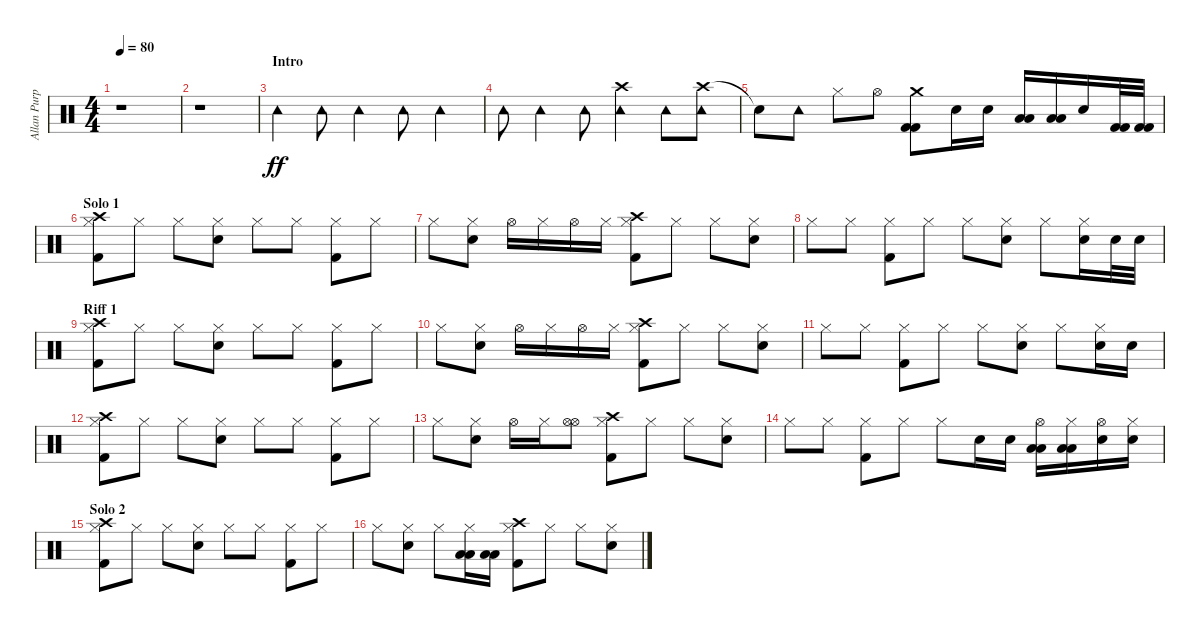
\track ("Allan Purple" "Allan Purp") {instrument percussion}
\staff {score}
\articulation defaults
\ts (4 4)
\tempo 80
\clef neutral
\ks c
r.1{dy ff} |
r.1 |
\section ("" "Intro")
"Tambourine (hit)".4 "Tambourine (hit)".8 "Tambourine (hit)".4 "Tambourine (hit)".8 "Tambourine (hit)".4 |
"Tambourine (hit)".8 "Tambourine (hit)".4 "Tambourine (hit)".8 ("Crash high (hit)" "Tambourine (hit)").4 "Tambourine (hit)".8 ("Crash high (hit)" "Tambourine (hit)").8 |
"Snare (hit)"{t}.8 "Tambourine (hit)".8 "Hi-Hat (closed)".8 "Hi-Hat (open)".8 ("Crash medium (hit)" "Kick (hit) 2" "Kick (hit) 2").8 "Electric Snare (hit)".16 "Electric Snare (hit)".16 ("Low Tom (hit)" "Low Tom (hit)").16 ("Low Tom (hit)" "Low Tom (hit)").16 "Snare (hit) 2".16 ("Kick (hit) 2" "Kick (hit) 2").32 ("Kick (hit) 2" "Kick (hit) 2").32 |
\section ("" "Solo 1")
("Crash high (hit)" "Hi-Hat (closed)" "Kick (hit) 2").8 "Hi-Hat (closed)".8 "Hi-Hat (closed)".8 ("Hi-Hat (closed)" "Snare (hit) 2").8 "Hi-Hat (closed)".8 "Hi-Hat (closed)".8 ("Hi-Hat (closed)" "Kick (hit) 2").8 "Hi-Hat (closed)".8 |
"Hi-Hat (closed)".8 ("Hi-Hat (closed)" "Snare (hit) 2").8 "Hi-Hat (open)".16 "Hi-Hat (closed)".16 "Hi-Hat (open)".16 "Hi-Hat (closed)".16 ("Crash high (hit)" "Hi-Hat (closed)" "Kick (hit) 2").8 "Hi-Hat (closed)".8 "Hi-Hat (closed)".8 ("Hi-Hat (closed)" "Snare (hit) 2").8 |
"Hi-Hat (closed)".8 "Hi-Hat (closed)".8 ("Hi-Hat (closed)" "Kick (hit) 2").8 "Hi-Hat (closed)".8 "Hi-Hat (closed)".8 ("Hi-Hat (closed)" "Snare (hit) 2").8 "Hi-Hat (closed)".8 ("Hi-Hat (closed)" "Electric Snare (hit)").16 "Electric Snare (hit)".32 "Electric Snare (hit)".32 |
\section ("" "Riff 1")
("Crash high (hit)" "Hi-Hat (closed)" "Kick (hit) 2").8 "Hi-Hat (closed)".8 "Hi-Hat (closed)".8 ("Hi-Hat (closed)" "Snare (hit) 2").8 "Hi-Hat (closed)".8 "Hi-Hat (closed)".8 ("Hi-Hat (closed)" "Kick (hit) 2").8 "Hi-Hat (closed)".8 |
"Hi-Hat (closed)".8 ("Hi-Hat (closed)" "Snare (hit) 2").8 "Hi-Hat (open)".16 "Hi-Hat (closed)".16 "Hi-Hat (open)".16 "Hi-Hat (closed)".16 ("Crash high (hit)" "Hi-Hat (closed)" "Kick (hit) 2").8 "Hi-Hat (closed)".8 "Hi-Hat (closed)".8 ("Hi-Hat (closed)" "Snare (hit) 2").8 |
"Hi-Hat (closed)".8 "Hi-Hat (closed)".8 ("Hi-Hat (closed)" "Kick (hit) 2").8 "Hi-Hat (closed)".8 "Hi-Hat (closed)".8 ("Hi-Hat (closed)" "Snare (hit) 2").8 "Hi-Hat (closed)".8 ("Hi-Hat (closed)" "Electric Snare (hit)").16 "Electric Snare (hit)".16 |
("Crash high (hit)" "Hi-Hat (closed)" "Kick (hit) 2").8 "Hi-Hat (closed)".8 "Hi-Hat (closed)".8 ("Hi-Hat (closed)" "Snare (hit) 2").8 "Hi-Hat (closed)".8 "Hi-Hat (closed)".8 ("Hi-Hat (closed)" "Kick (hit) 2").8 "Hi-Hat (closed)".8 |
"Hi-Hat (closed)".8 ("Hi-Hat (closed)" "Snare (hit) 2").8 "Hi-Hat (open)".16 "Hi-Hat (closed)".16 ("Hi-Hat (open)" "Hi-Hat (open)").8 ("Crash high (hit)" "Hi-Hat (closed)" "Kick (hit) 2").8 "Hi-Hat (closed)".8 "Hi-Hat (closed)".8 ("Hi-Hat (closed)" "Snare (hit) 2").8 |
"Hi-Hat (closed)".8 "Hi-Hat (closed)".8 ("Hi-Hat (closed)" "Kick (hit) 2").8 "Hi-Hat (closed)".8 "Hi-Hat (closed)".8 "Electric Snare (hit)".16 "Electric Snare (hit)".16 ("Hi-Hat (open)" "Low Tom (hit)" "Low Tom (hit)").16 ("Hi-Hat (closed)" "Low Tom (hit)" "Low Tom (hit)").16 ("Hi-Hat (open)" "Snare (hit) 2").16 ("Hi-Hat (closed)" "Snare (hit) 2").16 |
\section ("" "Solo 2")
("Crash high (hit)" "Hi-Hat (closed)" "Kick (hit) 2").8 "Hi-Hat (closed)".8 "Hi-Hat (closed)".8 ("Hi-Hat (closed)" "Snare (hit) 2").8 "Hi-Hat (closed)".8 "Hi-Hat (closed)".8 ("Hi-Hat (closed)" "Kick (hit) 2").8 "Hi-Hat (closed)".8 |
"Hi-Hat (closed)".8 ("Hi-Hat (closed)" "Snare (hit) 2").8 "Hi-Hat (closed)".8 ("Hi-Hat (closed)" "Low Tom (hit)" "Low Tom (hit)").16 ("Low Tom (hit)" "Low Tom (hit)").16 ("Crash high (hit)" "Hi-Hat (closed)" "Kick (hit) 2").8 "Hi-Hat (closed)".8 "Hi-Hat (closed)".8 ("Hi-Hat (closed)" "Snare (hit) 2").8
